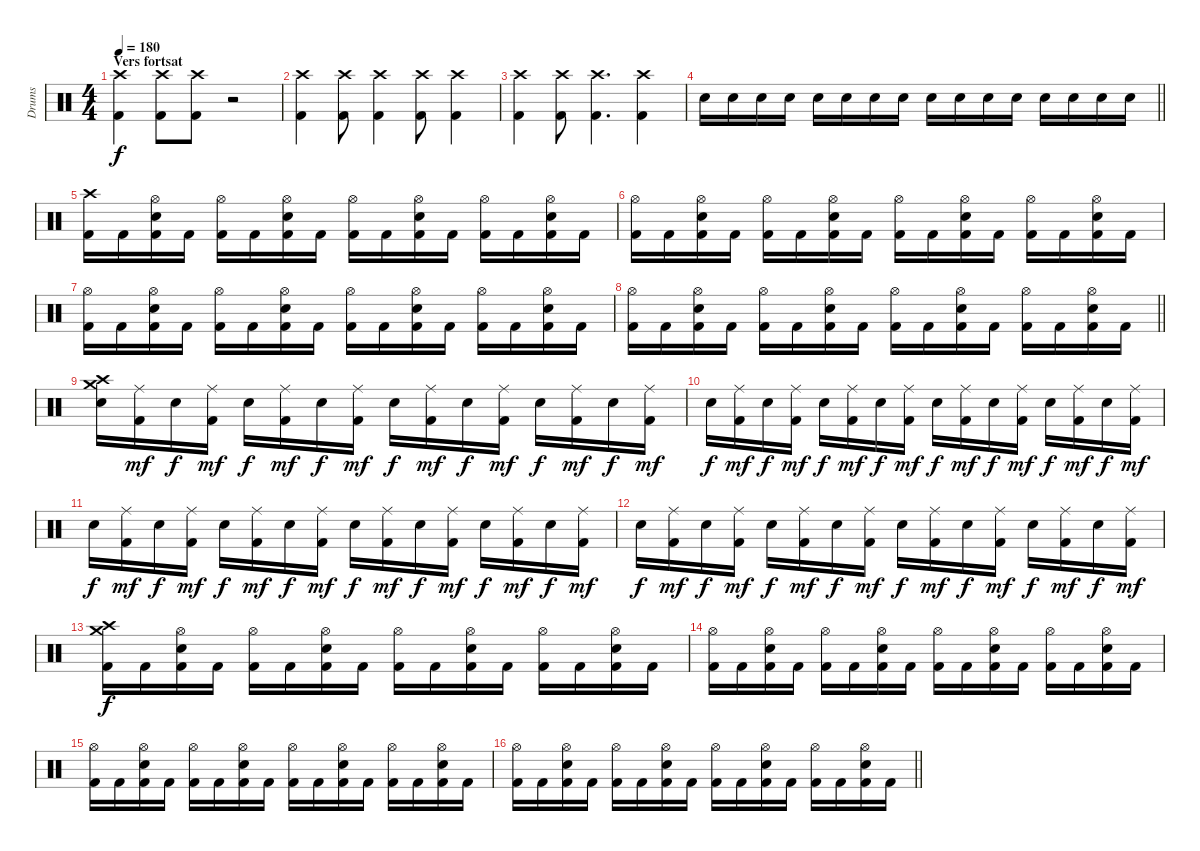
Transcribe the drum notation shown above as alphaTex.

\track ("Drums" "Drums") {instrument percussion}
\staff {score}
\articulation defaults
\ts (4 4)
\section ("" "Vers fortsat")
\tempo 180
\clef neutral
\ks c
("Crash high (hit)" "Kick (hit) 2").4{dy f} ("Crash high (hit)" "Kick (hit) 2").8 ("Crash high (hit)" "Kick (hit) 2").8 r.2 |
("Crash high (hit)" "Kick (hit) 2").4 ("Crash high (hit)" "Kick (hit) 2").8 ("Crash high (hit)" "Kick (hit) 2").4 ("Crash high (hit)" "Kick (hit) 2").8 ("Crash high (hit)" "Kick (hit) 2").4 |
("Crash high (hit)" "Kick (hit) 2").4 ("Crash high (hit)" "Kick (hit) 2").8 ("Crash high (hit)" "Kick (hit) 2").4{d} ("Crash high (hit)" "Kick (hit) 2").4 |
\barLineRight lightlight "Snare (hit) 2".16 "Snare (hit) 2".16 "Snare (hit) 2".16 "Snare (hit) 2".16 "Snare (hit) 2".16 "Snare (hit) 2".16 "Snare (hit) 2".16 "Snare (hit) 2".16 "Snare (hit) 2".16 "Snare (hit) 2".16 "Snare (hit) 2".16 "Snare (hit) 2".16 "Snare (hit) 2".16 "Snare (hit) 2".16 "Snare (hit) 2".16 "Snare (hit) 2".16
|
("Crash high (hit)" "Kick (hit) 2").16 "Kick (hit) 2".16 ("Hi-Hat (open)" "Snare (hit) 2" "Kick (hit) 2").16 "Kick (hit) 2".16 ("Hi-Hat (open)" "Kick (hit) 2").16 "Kick (hit) 2".16 ("Hi-Hat (open)" "Snare (hit) 2" "Kick (hit) 2").16 "Kick (hit) 2".16 ("Hi-Hat (open)" "Kick (hit) 2").16 "Kick (hit) 2".16 ("Hi-Hat (open)" "Snare (hit) 2" "Kick (hit) 2").16 "Kick (hit) 2".16 ("Hi-Hat (open)" "Kick (hit) 2").16 "Kick (hit) 2".16 ("Hi-Hat (open)" "Snare (hit) 2" "Kick (hit) 2").16 "Kick (hit) 2".16 |
("Hi-Hat (open)" "Kick (hit) 2").16 "Kick (hit) 2".16 ("Hi-Hat (open)" "Snare (hit) 2" "Kick (hit) 2").16 "Kick (hit) 2".16 ("Hi-Hat (open)" "Kick (hit) 2").16 "Kick (hit) 2".16 ("Hi-Hat (open)" "Snare (hit) 2" "Kick (hit) 2").16 "Kick (hit) 2".16 ("Hi-Hat (open)" "Kick (hit) 2").16 "Kick (hit) 2".16 ("Hi-Hat (open)" "Snare (hit) 2" "Kick (hit) 2").16 "Kick (hit) 2".16 ("Hi-Hat (open)" "Kick (hit) 2").16 "Kick (hit) 2".16 ("Hi-Hat (open)" "Snare (hit) 2" "Kick (hit) 2").16 "Kick (hit) 2".16 |
("Hi-Hat (open)" "Kick (hit) 2").16 "Kick (hit) 2".16 ("Hi-Hat (open)" "Snare (hit) 2" "Kick (hit) 2").16 "Kick (hit) 2".16 ("Hi-Hat (open)" "Kick (hit) 2").16 "Kick (hit) 2".16 ("Hi-Hat (open)" "Snare (hit) 2" "Kick (hit) 2").16 "Kick (hit) 2".16 ("Hi-Hat (open)" "Kick (hit) 2").16 "Kick (hit) 2".16 ("Hi-Hat (open)" "Snare (hit) 2" "Kick (hit) 2").16 "Kick (hit) 2".16 ("Hi-Hat (open)" "Kick (hit) 2").16 "Kick (hit) 2".16 ("Hi-Hat (open)" "Snare (hit) 2" "Kick (hit) 2").16 "Kick (hit) 2".16 |
\barLineRight lightlight
("Hi-Hat (open)" "Kick (hit) 2").16 "Kick (hit) 2".16 ("Hi-Hat (open)" "Snare (hit) 2" "Kick (hit) 2").16 "Kick (hit) 2".16 ("Hi-Hat (open)" "Kick (hit) 2").16 "Kick (hit) 2".16 ("Hi-Hat (open)" "Snare (hit) 2" "Kick (hit) 2").16 "Kick (hit) 2".16 ("Hi-Hat (open)" "Kick (hit) 2").16 "Kick (hit) 2".16 ("Hi-Hat (open)" "Snare (hit) 2" "Kick (hit) 2").16 "Kick (hit) 2".16 ("Hi-Hat (open)" "Kick (hit) 2").16 "Kick (hit) 2".16 ("Hi-Hat (open)" "Snare (hit) 2" "Kick (hit) 2").16 "Kick (hit) 2".16 |
("Crash medium (hit)" "Crash high (hit)" "Snare (hit) 2").16 ("Ride (middle)" "Kick (hit) 2").16{dy mf} "Snare (hit) 2".16{dy f} ("Ride (middle)" "Kick (hit) 2").16{dy mf} "Snare (hit) 2".16{dy f} ("Ride (middle)" "Kick (hit) 2").16{dy mf} "Snare (hit) 2".16{dy f} ("Ride (middle)" "Kick (hit) 2").16{dy mf} "Snare (hit) 2".16{dy f} ("Ride (middle)" "Kick (hit) 2").16{dy mf} "Snare (hit) 2".16{dy f} ("Ride (middle)" "Kick (hit) 2").16{dy mf} "Snare (hit) 2".16{dy f} ("Ride (middle)" "Kick (hit) 2").16{dy mf} "Snare (hit) 2".16{dy f} ("Ride (middle)" "Kick (hit) 2").16{dy mf} |
"Snare (hit) 2".16{dy f} ("Ride (middle)" "Kick (hit) 2").16{dy mf} "Snare (hit) 2".16{dy f} ("Ride (middle)" "Kick (hit) 2").16{dy mf} "Snare (hit) 2".16{dy f} ("Ride (middle)" "Kick (hit) 2").16{dy mf} "Snare (hit) 2".16{dy f} ("Ride (middle)" "Kick (hit) 2").16{dy mf} "Snare (hit) 2".16{dy f} ("Ride (middle)" "Kick (hit) 2").16{dy mf} "Snare (hit) 2".16{dy f} ("Ride (middle)" "Kick (hit) 2").16{dy mf} "Snare (hit) 2".16{dy f} ("Ride (middle)" "Kick (hit) 2").16{dy mf} "Snare (hit) 2".16{dy f} ("Ride (middle)" "Kick (hit) 2").16{dy mf} |
"Snare (hit) 2".16{dy f} ("Ride (middle)" "Kick (hit) 2").16{dy mf} "Snare (hit) 2".16{dy f} ("Ride (middle)" "Kick (hit) 2").16{dy mf} "Snare (hit) 2".16{dy f} ("Ride (middle)" "Kick (hit) 2").16{dy mf} "Snare (hit) 2".16{dy f} ("Ride (middle)" "Kick (hit) 2").16{dy mf} "Snare (hit) 2".16{dy f} ("Ride (middle)" "Kick (hit) 2").16{dy mf} "Snare (hit) 2".16{dy f} ("Ride (middle)" "Kick (hit) 2").16{dy mf} "Snare (hit) 2".16{dy f} ("Ride (middle)" "Kick (hit) 2").16{dy mf} "Snare (hit) 2".16{dy f} ("Ride (middle)" "Kick (hit) 2").16{dy mf} |
"Snare (hit) 2".16{dy f} ("Ride (middle)" "Kick (hit) 2").16{dy mf} "Snare (hit) 2".16{dy f} ("Ride (middle)" "Kick (hit) 2").16{dy mf} "Snare (hit) 2".16{dy f} ("Ride (middle)" "Kick (hit) 2").16{dy mf} "Snare (hit) 2".16{dy f} ("Ride (middle)" "Kick (hit) 2").16{dy mf} "Snare (hit) 2".16{dy f} ("Ride (middle)" "Kick (hit) 2").16{dy mf} "Snare (hit) 2".16{dy f} ("Ride (middle)" "Kick (hit) 2").16{dy mf} "Snare (hit) 2".16{dy f} ("Ride (middle)" "Kick (hit) 2").16{dy mf} "Snare (hit) 2".16{dy f} ("Ride (middle)" "Kick (hit) 2").16{dy mf} |
("Crash medium (hit)" "Crash high (hit)" "Kick (hit) 2").16{dy f} "Kick (hit) 2".16 ("Hi-Hat (open)" "Snare (hit) 2" "Kick (hit) 2").16 "Kick (hit) 2".16 ("Hi-Hat (open)" "Kick (hit) 2").16 "Kick (hit) 2".16 ("Hi-Hat (open)" "Snare (hit) 2" "Kick (hit) 2").16 "Kick (hit) 2".16 ("Hi-Hat (open)" "Kick (hit) 2").16 "Kick (hit) 2".16 ("Hi-Hat (open)" "Snare (hit) 2" "Kick (hit) 2").16 "Kick (hit) 2".16 ("Hi-Hat (open)" "Kick (hit) 2").16 "Kick (hit) 2".16 ("Hi-Hat (open)" "Snare (hit) 2" "Kick (hit) 2").16 "Kick (hit) 2".16 |
("Hi-Hat (open)" "Kick (hit) 2").16 "Kick (hit) 2".16 ("Hi-Hat (open)" "Snare (hit) 2" "Kick (hit) 2").16 "Kick (hit) 2".16 ("Hi-Hat (open)" "Kick (hit) 2").16 "Kick (hit) 2".16 ("Hi-Hat (open)" "Snare (hit) 2" "Kick (hit) 2").16 "Kick (hit) 2".16 ("Hi-Hat (open)" "Kick (hit) 2").16 "Kick (hit) 2".16 ("Hi-Hat (open)" "Snare (hit) 2" "Kick (hit) 2").16 "Kick (hit) 2".16 ("Hi-Hat (open)" "Kick (hit) 2").16 "Kick (hit) 2".16 ("Hi-Hat (open)" "Snare (hit) 2" "Kick (hit) 2").16 "Kick (hit) 2".16 |
("Hi-Hat (open)" "Kick (hit) 2").16 "Kick (hit) 2".16 ("Hi-Hat (open)" "Snare (hit) 2" "Kick (hit) 2").16 "Kick (hit) 2".16 ("Hi-Hat (open)" "Kick (hit) 2").16 "Kick (hit) 2".16 ("Hi-Hat (open)" "Snare (hit) 2" "Kick (hit) 2").16 "Kick (hit) 2".16 ("Hi-Hat (open)" "Kick (hit) 2").16 "Kick (hit) 2".16 ("Hi-Hat (open)" "Snare (hit) 2" "Kick (hit) 2").16 "Kick (hit) 2".16 ("Hi-Hat (open)" "Kick (hit) 2").16 "Kick (hit) 2".16 ("Hi-Hat (open)" "Snare (hit) 2" "Kick (hit) 2").16 "Kick (hit) 2".16 |
\barLineRight lightlight
("Hi-Hat (open)" "Kick (hit) 2").16 "Kick (hit) 2".16 ("Hi-Hat (open)" "Snare (hit) 2" "Kick (hit) 2").16 "Kick (hit) 2".16 ("Hi-Hat (open)" "Kick (hit) 2").16 "Kick (hit) 2".16 ("Hi-Hat (open)" "Snare (hit) 2" "Kick (hit) 2").16 "Kick (hit) 2".16 ("Hi-Hat (open)" "Kick (hit) 2").16 "Kick (hit) 2".16 ("Hi-Hat (open)" "Snare (hit) 2" "Kick (hit) 2").16 "Kick (hit) 2".16 ("Hi-Hat (open)" "Kick (hit) 2").16 "Kick (hit) 2".16 ("Hi-Hat (open)" "Snare (hit) 2" "Kick (hit) 2").16 "Kick (hit) 2".16
